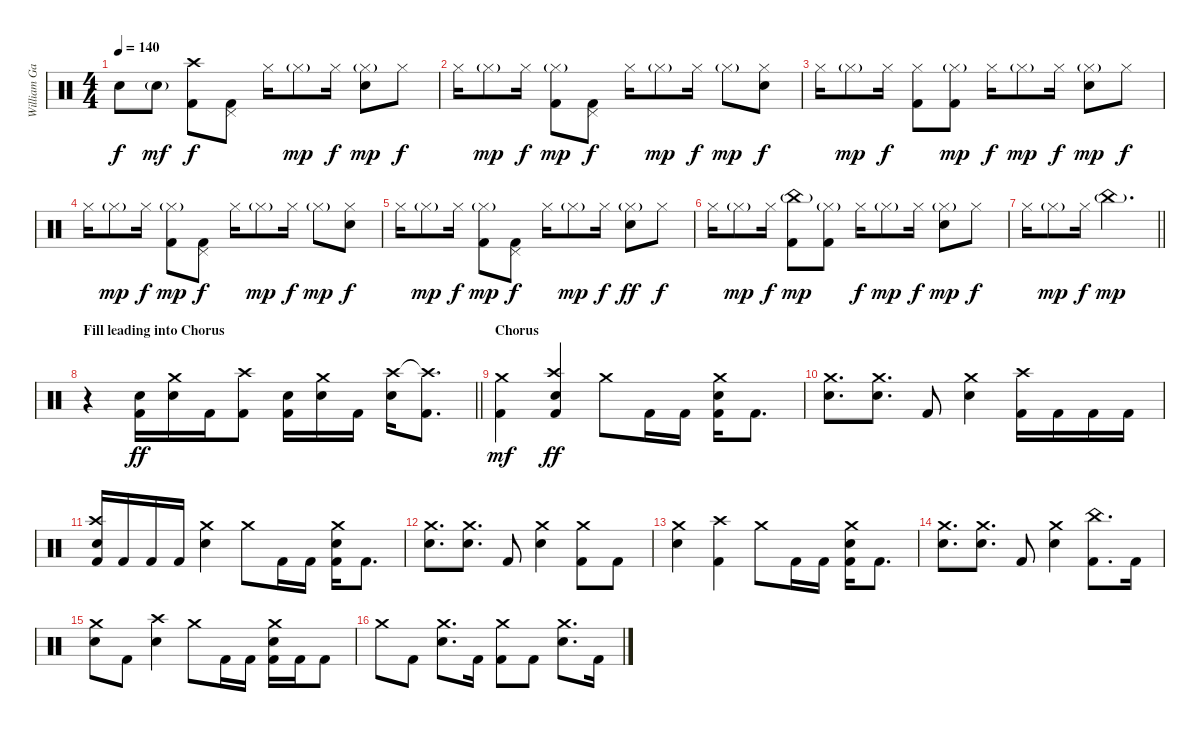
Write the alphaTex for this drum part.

\track ("William Gates (Drums)" "William Ga") {instrument percussion}
\staff {score}
\articulation defaults
\ts (4 4)
\tempo 140
\clef neutral
\ks c "Snare (hit) 2".8{dy f} "Snare (hit) 2"{g}.8{dy mf}
("Crash high (hit)" "Kick (hit) 2").8{dy f} ("Pedal Hi-Hat (hit)" "Kick (hit) 2").8 "Hi-Hat (closed)".16 "Hi-Hat (closed)"{g}.8{dy mp} "Hi-Hat (closed)".16{dy f} ("Hi-Hat (closed)"{g} "Snare (hit) 2").8{dy mp} "Hi-Hat (closed)".8{dy f} |
"Hi-Hat (closed)".16 "Hi-Hat (closed)"{g}.8{dy mp} "Hi-Hat (closed)".16{dy f} ("Hi-Hat (closed)"{g} "Kick (hit) 2").8{dy mp} ("Pedal Hi-Hat (hit)" "Kick (hit) 2").8{dy f} "Hi-Hat (closed)".16 "Hi-Hat (closed)"{g}.8{dy mp} "Hi-Hat (closed)".16{dy f} "Hi-Hat (closed)"{g}.8{dy mp} ("Hi-Hat (closed)" "Snare (hit) 2").8{dy f} |
"Hi-Hat (closed)".16 "Hi-Hat (closed)"{g}.8{dy mp} "Hi-Hat (closed)".16{dy f} ("Hi-Hat (closed)" "Kick (hit) 2").8 ("Hi-Hat (closed)"{g} "Kick (hit) 2").8{dy mp} "Hi-Hat (closed)".16{dy f} "Hi-Hat (closed)"{g}.8{dy mp} "Hi-Hat (closed)".16{dy f} ("Hi-Hat (closed)"{g} "Snare (hit) 2").8{dy mp} "Hi-Hat (closed)".8{dy f} |
"Hi-Hat (closed)".16 "Hi-Hat (closed)"{g}.8{dy mp} "Hi-Hat (closed)".16{dy f} ("Hi-Hat (closed)"{g} "Kick (hit) 2").8{dy mp} ("Pedal Hi-Hat (hit)" "Kick (hit) 2").8{dy f} "Hi-Hat (closed)".16 "Hi-Hat (closed)"{g}.8{dy mp} "Hi-Hat (closed)".16{dy f} "Hi-Hat (closed)"{g}.8{dy mp} ("Hi-Hat (closed)" "Snare (hit) 2").8{dy f} |
"Hi-Hat (closed)".16 "Hi-Hat (closed)"{g}.8{dy mp} "Hi-Hat (closed)".16{dy f} ("Hi-Hat (closed)"{g} "Kick (hit) 2").8{dy mp} ("Pedal Hi-Hat (hit)" "Kick (hit) 2").8{dy f} "Hi-Hat (closed)".16 "Hi-Hat (closed)"{g}.8{dy mp} "Hi-Hat (closed)".16{dy f} ("Hi-Hat (closed)"{g} "Snare (hit) 2").8{dy ff} "Hi-Hat (closed)".8{dy f} |
"Hi-Hat (closed)".16 "Hi-Hat (closed)"{g}.8{dy mp} "Hi-Hat (closed)".16{dy f} ("China (hit)"{g} "Kick (hit) 2").8{dy mp} ("Hi-Hat (closed)"{g} "Kick (hit) 2").8 "Hi-Hat (closed)".16{dy f} "Hi-Hat (closed)"{g}.8{dy mp} "Hi-Hat (closed)".16{dy f} ("Hi-Hat (closed)"{g} "Snare (hit) 2").8{dy mp} "Hi-Hat (closed)".8{dy f} |
\barLineRight lightlight "Hi-Hat (closed)".16 "Hi-Hat (closed)"{g}.8{dy mp} "Hi-Hat (closed)".16{dy f} "China (hit)"{g}.2{d dy mp}
|
\section ("" "Fill leading into Chorus")
\barLineRight lightlight
r.4 ("Snare (hit) 2" "Kick (hit) 2").16{dy ff} ("Crash medium (hit)" "Snare (hit) 2").16 "Kick (hit) 2".16 ("Crash high (hit)" "Kick (hit) 2").8 ("Snare (hit) 2" "Kick (hit) 2").16 ("Crash medium (hit)" "Snare (hit) 2").16 "Kick (hit) 2".16 ("Crash high (hit)" "Snare (hit) 2").16 ("Crash high (hit)"{t} "Kick (hit) 2").8{d} |
\section ("" "Chorus")
("Crash medium (hit)" "Kick (hit) 2").4{dy mf} ("Crash high (hit)" "Snare (hit) 2" "Kick (hit) 2").4{dy ff} "Crash medium (hit)".8 "Kick (hit) 2".16 "Kick (hit) 2".16 ("Crash medium (hit)" "Snare (hit) 2" "Kick (hit) 2").16 "Kick (hit) 2".8{d} |
("Crash medium (hit)" "Snare (hit) 2").8{d} ("Crash medium (hit)" "Snare (hit) 2").8{d} "Kick (hit) 2".8 ("Crash medium (hit)" "Snare (hit) 2").4 ("Crash high (hit)" "Kick (hit) 2").16 "Kick (hit) 2".16 "Kick (hit) 2".16 "Kick (hit) 2".16 |
("Crash high (hit)" "Snare (hit) 2" "Kick (hit) 2").16 "Kick (hit) 2".16 "Kick (hit) 2".16 "Kick (hit) 2".16 ("Crash medium (hit)" "Snare (hit) 2").4 "Crash medium (hit)".8 "Kick (hit) 2".16 "Kick (hit) 2".16 ("Crash medium (hit)" "Snare (hit) 2" "Kick (hit) 2").16 "Kick (hit) 2".8{d} |
("Crash medium (hit)" "Snare (hit) 2").8{d} ("Crash medium (hit)" "Snare (hit) 2").8{d} "Kick (hit) 2".8 ("Crash medium (hit)" "Snare (hit) 2").4 ("Crash medium (hit)" "Kick (hit) 2").8 "Kick (hit) 2".8 |
("Crash medium (hit)" "Snare (hit) 2").4 ("Crash high (hit)" "Kick (hit) 2").4 "Crash medium (hit)".8 "Kick (hit) 2".16 "Kick (hit) 2".16 ("Crash medium (hit)" "Snare (hit) 2" "Kick (hit) 2").16 "Kick (hit) 2".8{d} |
("Crash medium (hit)" "Snare (hit) 2").8{d} ("Crash medium (hit)" "Snare (hit) 2").8{d} "Kick (hit) 2".8 ("Crash medium (hit)" "Snare (hit) 2").4 ("China (hit)" "Kick (hit) 2").8{d} "Kick (hit) 2".16 |
("Crash medium (hit)" "Snare (hit) 2").8 "Kick (hit) 2".8 ("Crash high (hit)" "Snare (hit) 2").4 "Crash medium (hit)".8 "Kick (hit) 2".16 "Kick (hit) 2".16 ("Crash medium (hit)" "Snare (hit) 2" "Kick (hit) 2").16 "Kick (hit) 2".16 "Kick (hit) 2".8 |
"Crash medium (hit)".8 "Kick (hit) 2".8 ("Crash medium (hit)" "Snare (hit) 2").8{d} "Kick (hit) 2".16 ("Crash medium (hit)" "Kick (hit) 2").8 "Kick (hit) 2".8 ("Crash medium (hit)" "Snare (hit) 2").8{d} "Kick (hit) 2".16
